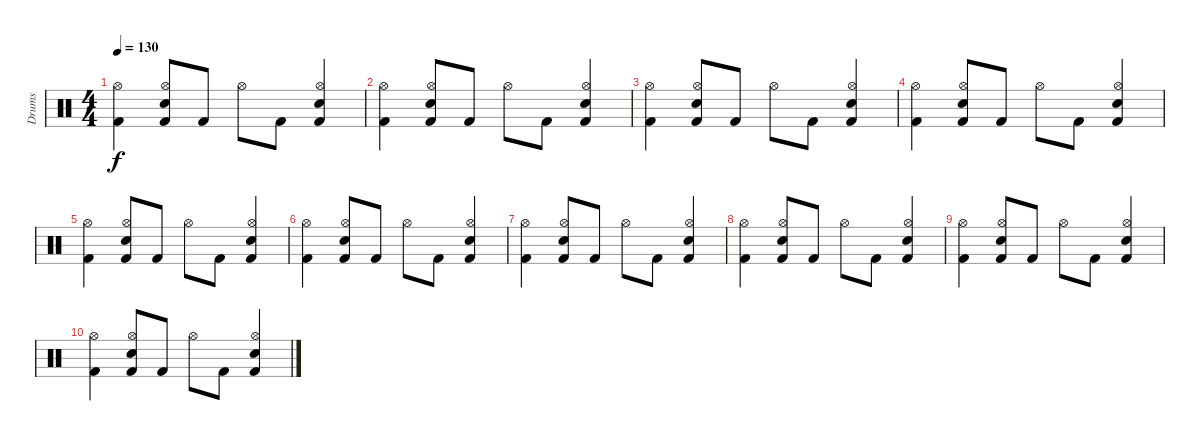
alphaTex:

\track ("Drums" "Drums") {instrument percussion}
\staff {score}
\articulation defaults
\ts (4 4)
\tempo 130
\clef neutral
\ks c
("Kick (hit) 2" "Hi-Hat (open)").4{dy f} ("Kick (hit) 2" "Hi-Hat (open)" "Snare (hit) 2").8 "Kick (hit) 2".8 "Hi-Hat (open)".8 "Kick (hit) 2".8 ("Kick (hit) 2" "Hi-Hat (open)" "Snare (hit) 2").4 |
("Kick (hit) 2" "Hi-Hat (open)").4 ("Kick (hit) 2" "Hi-Hat (open)" "Snare (hit) 2").8 "Kick (hit) 2".8 "Hi-Hat (open)".8 "Kick (hit) 2".8 ("Kick (hit) 2" "Hi-Hat (open)" "Snare (hit) 2").4 |
("Kick (hit) 2" "Hi-Hat (open)").4 ("Kick (hit) 2" "Hi-Hat (open)" "Snare (hit) 2").8 "Kick (hit) 2".8 "Hi-Hat (open)".8 "Kick (hit) 2".8 ("Kick (hit) 2" "Hi-Hat (open)" "Snare (hit) 2").4 |
("Kick (hit) 2" "Hi-Hat (open)").4 ("Kick (hit) 2" "Hi-Hat (open)" "Snare (hit) 2").8 "Kick (hit) 2".8 "Hi-Hat (open)".8 "Kick (hit) 2".8 ("Kick (hit) 2" "Hi-Hat (open)" "Snare (hit) 2").4 |
("Kick (hit) 2" "Hi-Hat (open)").4 ("Kick (hit) 2" "Hi-Hat (open)" "Snare (hit) 2").8 "Kick (hit) 2".8 "Hi-Hat (open)".8 "Kick (hit) 2".8 ("Kick (hit) 2" "Hi-Hat (open)" "Snare (hit) 2").4 |
("Kick (hit) 2" "Hi-Hat (open)").4 ("Kick (hit) 2" "Hi-Hat (open)" "Snare (hit) 2").8 "Kick (hit) 2".8 "Hi-Hat (open)".8 "Kick (hit) 2".8 ("Kick (hit) 2" "Hi-Hat (open)" "Snare (hit) 2").4 |
("Kick (hit) 2" "Hi-Hat (open)").4 ("Kick (hit) 2" "Hi-Hat (open)" "Snare (hit) 2").8 "Kick (hit) 2".8 "Hi-Hat (open)".8 "Kick (hit) 2".8 ("Kick (hit) 2" "Hi-Hat (open)" "Snare (hit) 2").4 |
("Kick (hit) 2" "Hi-Hat (open)").4 ("Kick (hit) 2" "Hi-Hat (open)" "Snare (hit) 2").8 "Kick (hit) 2".8 "Hi-Hat (open)".8 "Kick (hit) 2".8 ("Kick (hit) 2" "Hi-Hat (open)" "Snare (hit) 2").4 |
("Kick (hit) 2" "Hi-Hat (open)").4 ("Kick (hit) 2" "Hi-Hat (open)" "Snare (hit) 2").8 "Kick (hit) 2".8 "Hi-Hat (open)".8 "Kick (hit) 2".8 ("Kick (hit) 2" "Hi-Hat (open)" "Snare (hit) 2").4 |
("Kick (hit) 2" "Hi-Hat (open)").4 ("Kick (hit) 2" "Hi-Hat (open)" "Snare (hit) 2").8 "Kick (hit) 2".8 "Hi-Hat (open)".8 "Kick (hit) 2".8 ("Kick (hit) 2" "Hi-Hat (open)" "Snare (hit) 2").4
